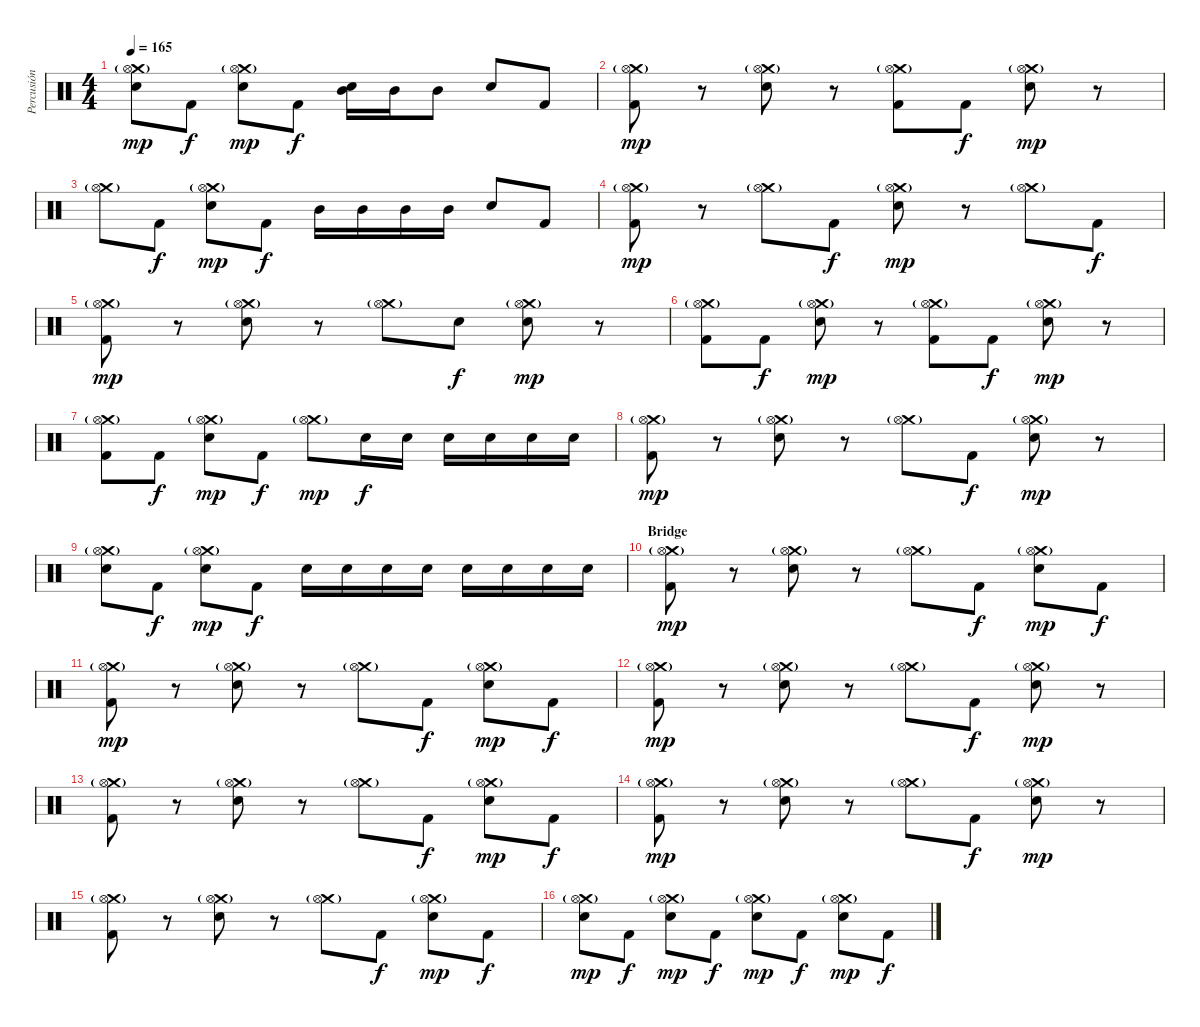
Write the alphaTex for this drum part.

\track ("Percusión" "Percusión") {instrument percussion}
\staff {score}
\articulation defaults
\ts (4 4)
\tempo 165
\clef neutral
\ks c
("Crash medium (hit)"{g} "Hi-Hat (open)" "Electric Snare (hit)").8{dy mp} "Kick (hit) 2".8{dy f} ("Crash medium (hit)"{g} "Hi-Hat (open)" "Electric Snare (hit)").8{dy mp} "Kick (hit) 2".8{dy f} ("Electric Snare (hit)" "Mid Tom (hit)").16 "Mid Tom (hit)".16 "Mid Tom (hit)".8 "Electric Snare (hit)".8 "Kick (hit) 2".8 |
("Crash medium (hit)"{g} "Hi-Hat (open)" "Kick (hit) 2").8{dy mp} r.8 ("Crash medium (hit)"{g} "Hi-Hat (open)" "Electric Snare (hit)").8 r.8 ("Crash medium (hit)"{g} "Hi-Hat (open)" "Kick (hit) 2").8 "Kick (hit) 2".8{dy f} ("Crash medium (hit)"{g} "Hi-Hat (open)" "Electric Snare (hit)").8{dy mp} r.8 |
("Crash medium (hit)"{g} "Hi-Hat (open)").8 "Kick (hit) 2".8{dy f} ("Crash medium (hit)"{g} "Hi-Hat (open)" "Electric Snare (hit)").8{dy mp} "Kick (hit) 2".8{dy f} "Mid Tom (hit)".16 "Mid Tom (hit)".16 "Mid Tom (hit)".16 "Mid Tom (hit)".16 "Electric Snare (hit)".8 "Kick (hit) 2".8 |
("Crash medium (hit)"{g} "Hi-Hat (open)" "Kick (hit) 2").8{dy mp} r.8 ("Crash medium (hit)"{g} "Hi-Hat (open)").8 "Kick (hit) 2".8{dy f} ("Crash medium (hit)"{g} "Hi-Hat (open)" "Electric Snare (hit)").8{dy mp} r.8 ("Crash medium (hit)"{g} "Hi-Hat (open)").8 "Kick (hit) 2".8{dy f} |
("Crash medium (hit)"{g} "Hi-Hat (open)" "Kick (hit) 2").8{dy mp} r.8 ("Crash medium (hit)"{g} "Hi-Hat (open)" "Electric Snare (hit)").8 r.8 ("Crash medium (hit)"{g} "Hi-Hat (open)").8 "Electric Snare (hit)".8{dy f} ("Crash medium (hit)"{g} "Hi-Hat (open)" "Electric Snare (hit)").8{dy mp} r.8 |
("Crash medium (hit)"{g} "Hi-Hat (open)" "Kick (hit) 2").8 "Kick (hit) 2".8{dy f} ("Crash medium (hit)"{g} "Hi-Hat (open)" "Electric Snare (hit)").8{dy mp} r.8 ("Crash medium (hit)"{g} "Hi-Hat (open)" "Kick (hit) 2").8 "Kick (hit) 2".8{dy f} ("Crash medium (hit)"{g} "Hi-Hat (open)" "Electric Snare (hit)").8{dy mp} r.8 |
("Crash medium (hit)"{g} "Hi-Hat (open)" "Kick (hit) 2").8 "Kick (hit) 2".8{dy f} ("Crash medium (hit)"{g} "Hi-Hat (open)" "Electric Snare (hit)").8{dy mp} "Kick (hit) 2".8{dy f} ("Crash medium (hit)"{g} "Hi-Hat (open)").8{dy mp} "Electric Snare (hit)".16{dy f} "Electric Snare (hit)".16 "Electric Snare (hit)".16 "Electric Snare (hit)".16 "Electric Snare (hit)".16 "Electric Snare (hit)".16 |
("Crash medium (hit)"{g} "Hi-Hat (open)" "Kick (hit) 2").8{dy mp} r.8 ("Crash medium (hit)"{g} "Hi-Hat (open)" "Electric Snare (hit)").8 r.8 ("Crash medium (hit)"{g} "Hi-Hat (open)").8 "Kick (hit) 2".8{dy f} ("Crash medium (hit)"{g} "Hi-Hat (open)" "Electric Snare (hit)").8{dy mp} r.8 |
("Crash medium (hit)"{g} "Hi-Hat (open)" "Electric Snare (hit)").8 "Kick (hit) 2".8{dy f} ("Crash medium (hit)"{g} "Hi-Hat (open)" "Electric Snare (hit)").8{dy mp} "Kick (hit) 2".8{dy f} "Electric Snare (hit)".16 "Electric Snare (hit)".16 "Electric Snare (hit)".16 "Electric Snare (hit)".16 "Electric Snare (hit)".16 "Electric Snare (hit)".16 "Electric Snare (hit)".16 "Electric Snare (hit)".16 |
\section ("" "Bridge")
("Crash medium (hit)"{g} "Hi-Hat (open)" "Kick (hit) 2").8{dy mp} r.8 ("Crash medium (hit)"{g} "Hi-Hat (open)" "Electric Snare (hit)").8 r.8 ("Crash medium (hit)"{g} "Hi-Hat (open)").8 "Kick (hit) 2".8{dy f} ("Crash medium (hit)"{g} "Hi-Hat (open)" "Electric Snare (hit)").8{dy mp} "Kick (hit) 2".8{dy f} |
("Crash medium (hit)"{g} "Hi-Hat (open)" "Kick (hit) 2").8{dy mp} r.8 ("Crash medium (hit)"{g} "Hi-Hat (open)" "Electric Snare (hit)").8 r.8 ("Crash medium (hit)"{g} "Hi-Hat (open)").8 "Kick (hit) 2".8{dy f} ("Crash medium (hit)"{g} "Hi-Hat (open)" "Electric Snare (hit)").8{dy mp} "Kick (hit) 2".8{dy f} |
("Crash medium (hit)"{g} "Hi-Hat (open)" "Kick (hit) 2").8{dy mp} r.8 ("Crash medium (hit)"{g} "Hi-Hat (open)" "Electric Snare (hit)").8 r.8 ("Crash medium (hit)"{g} "Hi-Hat (open)").8 "Kick (hit) 2".8{dy f} ("Crash medium (hit)"{g} "Hi-Hat (open)" "Electric Snare (hit)").8{dy mp} r.8 |
("Crash medium (hit)"{g} "Hi-Hat (open)" "Kick (hit) 2").8 r.8 ("Crash medium (hit)"{g} "Hi-Hat (open)" "Electric Snare (hit)").8 r.8 ("Crash medium (hit)"{g} "Hi-Hat (open)").8 "Kick (hit) 2".8{dy f} ("Crash medium (hit)"{g} "Hi-Hat (open)" "Electric Snare (hit)").8{dy mp} "Kick (hit) 2".8{dy f} |
("Crash medium (hit)"{g} "Hi-Hat (open)" "Kick (hit) 2").8{dy mp} r.8 ("Crash medium (hit)"{g} "Hi-Hat (open)" "Electric Snare (hit)").8 r.8 ("Crash medium (hit)"{g} "Hi-Hat (open)").8 "Kick (hit) 2".8{dy f} ("Crash medium (hit)"{g} "Hi-Hat (open)" "Electric Snare (hit)").8{dy mp} r.8 |
("Crash medium (hit)"{g} "Hi-Hat (open)" "Kick (hit) 2").8 r.8 ("Crash medium (hit)"{g} "Hi-Hat (open)" "Electric Snare (hit)").8 r.8 ("Crash medium (hit)"{g} "Hi-Hat (open)").8 "Kick (hit) 2".8{dy f} ("Crash medium (hit)"{g} "Hi-Hat (open)" "Electric Snare (hit)").8{dy mp} "Kick (hit) 2".8{dy f} |
("Crash medium (hit)"{g} "Hi-Hat (open)" "Electric Snare (hit)").8{dy mp} "Kick (hit) 2".8{dy f} ("Crash medium (hit)"{g} "Hi-Hat (open)" "Electric Snare (hit)").8{dy mp} "Kick (hit) 2".8{dy f} ("Crash medium (hit)"{g} "Hi-Hat (open)" "Electric Snare (hit)").8{dy mp} "Kick (hit) 2".8{dy f} ("Crash medium (hit)"{g} "Hi-Hat (open)" "Electric Snare (hit)").8{dy mp} "Kick (hit) 2".8{dy f}
